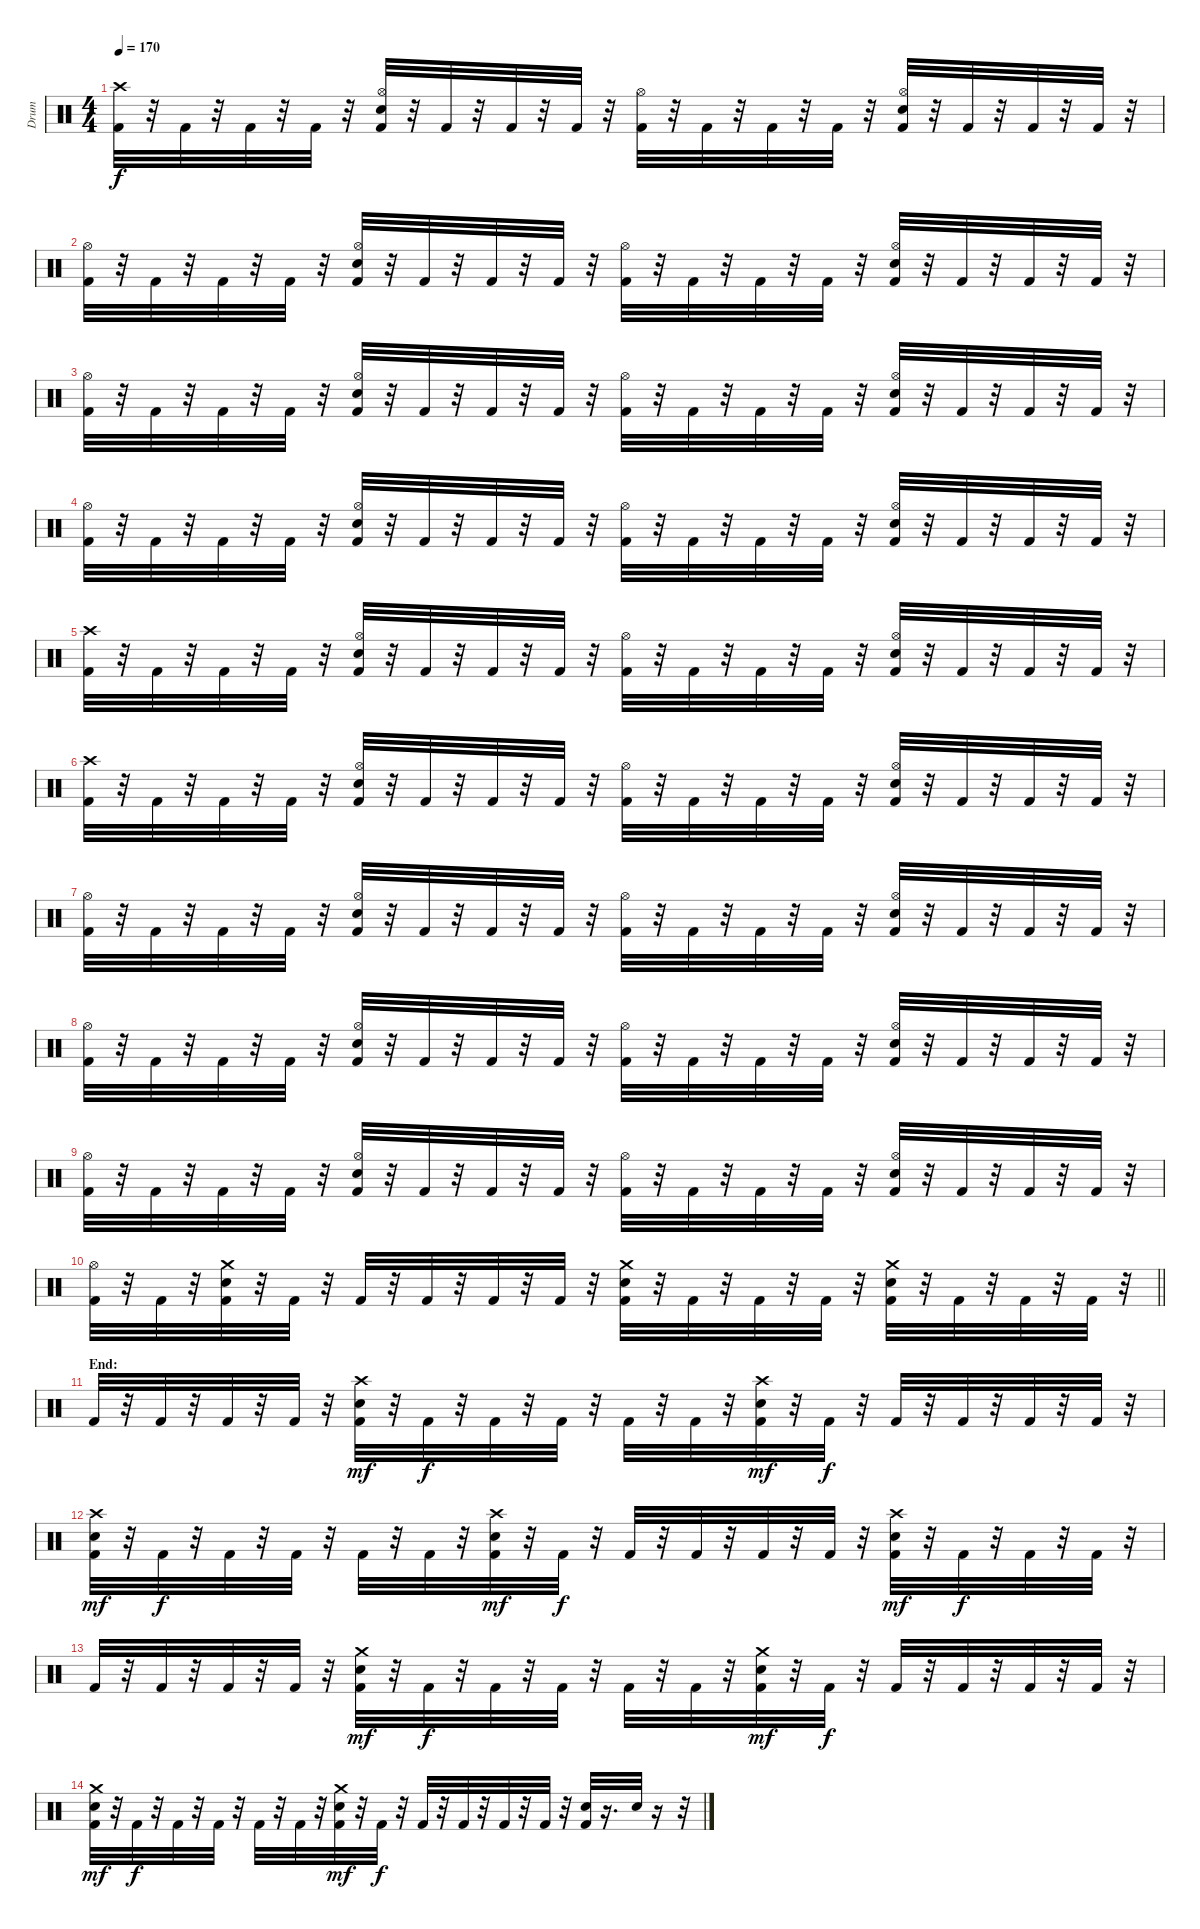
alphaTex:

\track ("Drum" "Drum") {instrument percussion}
\staff {score}
\articulation defaults
\ts (4 4)
\tempo 170
\clef neutral
\ks c
("Crash high (hit)" "Kick (hit) 2").32{dy f} r.32 "Kick (hit) 2".32 r.32 "Kick (hit) 2".32 r.32 "Kick (hit) 2".32 r.32 ("Kick (hit) 2" "Hi-Hat (open)" "Snare (hit) 2").32 r.32 "Kick (hit) 2".32 r.32 "Kick (hit) 2".32 r.32 "Kick (hit) 2".32 r.32 ("Kick (hit) 2" "Hi-Hat (open)").32 r.32 "Kick (hit) 2".32 r.32 "Kick (hit) 2".32 r.32 "Kick (hit) 2".32 r.32 ("Kick (hit) 2" "Hi-Hat (open)" "Snare (hit) 2").32 r.32 "Kick (hit) 2".32 r.32 "Kick (hit) 2".32 r.32 "Kick (hit) 2".32 r.32 |
("Hi-Hat (open)" "Kick (hit) 2").32 r.32 "Kick (hit) 2".32 r.32 "Kick (hit) 2".32 r.32 "Kick (hit) 2".32 r.32 ("Snare (hit) 2" "Hi-Hat (open)" "Kick (hit) 2").32 r.32 "Kick (hit) 2".32 r.32 "Kick (hit) 2".32 r.32 "Kick (hit) 2".32 r.32 ("Hi-Hat (open)" "Kick (hit) 2").32 r.32 "Kick (hit) 2".32 r.32 "Kick (hit) 2".32 r.32 "Kick (hit) 2".32 r.32 ("Snare (hit) 2" "Hi-Hat (open)" "Kick (hit) 2").32 r.32 "Kick (hit) 2".32 r.32 "Kick (hit) 2".32 r.32 "Kick (hit) 2".32 r.32 |
("Hi-Hat (open)" "Kick (hit) 2").32 r.32 "Kick (hit) 2".32 r.32 "Kick (hit) 2".32 r.32 "Kick (hit) 2".32 r.32 ("Snare (hit) 2" "Hi-Hat (open)" "Kick (hit) 2").32 r.32 "Kick (hit) 2".32 r.32 "Kick (hit) 2".32 r.32 "Kick (hit) 2".32 r.32 ("Hi-Hat (open)" "Kick (hit) 2").32 r.32 "Kick (hit) 2".32 r.32 "Kick (hit) 2".32 r.32 "Kick (hit) 2".32 r.32 ("Snare (hit) 2" "Hi-Hat (open)" "Kick (hit) 2").32 r.32 "Kick (hit) 2".32 r.32 "Kick (hit) 2".32 r.32 "Kick (hit) 2".32 r.32 |
("Hi-Hat (open)" "Kick (hit) 2").32 r.32 "Kick (hit) 2".32 r.32 "Kick (hit) 2".32 r.32 "Kick (hit) 2".32 r.32 ("Hi-Hat (open)" "Snare (hit) 2" "Kick (hit) 2").32 r.32 "Kick (hit) 2".32 r.32 "Kick (hit) 2".32 r.32 "Kick (hit) 2".32 r.32 ("Hi-Hat (open)" "Kick (hit) 2").32 r.32 "Kick (hit) 2".32 r.32 "Kick (hit) 2".32 r.32 "Kick (hit) 2".32 r.32 ("Hi-Hat (open)" "Snare (hit) 2" "Kick (hit) 2").32 r.32 "Kick (hit) 2".32 r.32 "Kick (hit) 2".32 r.32 "Kick (hit) 2".32 r.32 |
("Crash high (hit)" "Kick (hit) 2").32 r.32 "Kick (hit) 2".32 r.32 "Kick (hit) 2".32 r.32 "Kick (hit) 2".32 r.32 ("Snare (hit) 2" "Hi-Hat (open)" "Kick (hit) 2").32 r.32 "Kick (hit) 2".32 r.32 "Kick (hit) 2".32 r.32 "Kick (hit) 2".32 r.32 ("Hi-Hat (open)" "Kick (hit) 2").32 r.32 "Kick (hit) 2".32 r.32 "Kick (hit) 2".32 r.32 "Kick (hit) 2".32 r.32 ("Snare (hit) 2" "Hi-Hat (open)" "Kick (hit) 2").32 r.32 "Kick (hit) 2".32 r.32 "Kick (hit) 2".32 r.32 "Kick (hit) 2".32 r.32 |
("Crash high (hit)" "Kick (hit) 2").32 r.32 "Kick (hit) 2".32 r.32 "Kick (hit) 2".32 r.32 "Kick (hit) 2".32 r.32 ("Hi-Hat (open)" "Snare (hit) 2" "Kick (hit) 2").32 r.32 "Kick (hit) 2".32 r.32 "Kick (hit) 2".32 r.32 "Kick (hit) 2".32 r.32 ("Hi-Hat (open)" "Kick (hit) 2").32 r.32 "Kick (hit) 2".32 r.32 "Kick (hit) 2".32 r.32 "Kick (hit) 2".32 r.32 ("Hi-Hat (open)" "Snare (hit) 2" "Kick (hit) 2").32 r.32 "Kick (hit) 2".32 r.32 "Kick (hit) 2".32 r.32 "Kick (hit) 2".32 r.32 |
("Hi-Hat (open)" "Kick (hit) 2").32 r.32 "Kick (hit) 2".32 r.32 "Kick (hit) 2".32 r.32 "Kick (hit) 2".32 r.32 ("Hi-Hat (open)" "Snare (hit) 2" "Kick (hit) 2").32 r.32 "Kick (hit) 2".32 r.32 "Kick (hit) 2".32 r.32 "Kick (hit) 2".32 r.32 ("Hi-Hat (open)" "Kick (hit) 2").32 r.32 "Kick (hit) 2".32 r.32 "Kick (hit) 2".32 r.32 "Kick (hit) 2".32 r.32 ("Hi-Hat (open)" "Snare (hit) 2" "Kick (hit) 2").32 r.32 "Kick (hit) 2".32 r.32 "Kick (hit) 2".32 r.32 "Kick (hit) 2".32 r.32 |
("Hi-Hat (open)" "Kick (hit) 2").32 r.32 "Kick (hit) 2".32 r.32 "Kick (hit) 2".32 r.32 "Kick (hit) 2".32 r.32 ("Snare (hit) 2" "Hi-Hat (open)" "Kick (hit) 2").32 r.32 "Kick (hit) 2".32 r.32 "Kick (hit) 2".32 r.32 "Kick (hit) 2".32 r.32 ("Hi-Hat (open)" "Kick (hit) 2").32 r.32 "Kick (hit) 2".32 r.32 "Kick (hit) 2".32 r.32 "Kick (hit) 2".32 r.32 ("Snare (hit) 2" "Hi-Hat (open)" "Kick (hit) 2").32 r.32 "Kick (hit) 2".32 r.32 "Kick (hit) 2".32 r.32 "Kick (hit) 2".32 r.32 |
("Hi-Hat (open)" "Kick (hit) 2").32 r.32 "Kick (hit) 2".32 r.32 "Kick (hit) 2".32 r.32 "Kick (hit) 2".32 r.32 ("Kick (hit) 2" "Snare (hit) 2" "Hi-Hat (open)").32 r.32 "Kick (hit) 2".32 r.32 "Kick (hit) 2".32 r.32 "Kick (hit) 2".32 r.32 ("Kick (hit) 2" "Hi-Hat (open)").32 r.32 "Kick (hit) 2".32 r.32 "Kick (hit) 2".32 r.32 "Kick (hit) 2".32 r.32 ("Kick (hit) 2" "Snare (hit) 2" "Hi-Hat (open)").32 r.32 "Kick (hit) 2".32 r.32 "Kick (hit) 2".32 r.32 "Kick (hit) 2".32 r.32 |
\barLineRight lightlight
("Kick (hit) 2" "Hi-Hat (open)").32 r.32 "Kick (hit) 2".32 r.32 ("Crash medium (hit)" "Snare (hit) 2" "Kick (hit) 2").32 r.32 "Kick (hit) 2".32 r.32 "Kick (hit) 2".32 r.32 "Kick (hit) 2".32 r.32 "Kick (hit) 2".32 r.32 "Kick (hit) 2".32 r.32 ("Crash medium (hit)" "Snare (hit) 2" "Kick (hit) 2").32 r.32 "Kick (hit) 2".32 r.32 "Kick (hit) 2".32 r.32 "Kick (hit) 2".32 r.32 ("Crash medium (hit)" "Snare (hit) 2" "Kick (hit) 2").32 r.32 "Kick (hit) 2".32 r.32 "Kick (hit) 2".32 r.32 "Kick (hit) 2".32 r.32 |
\section ("" "End:")
"Kick (hit) 2".32 r.32 "Kick (hit) 2".32 r.32 "Kick (hit) 2".32 r.32 "Kick (hit) 2".32 r.32 ("Crash high (hit)" "Snare (hit) 2" "Kick (hit) 2").32{dy mf} r.32 "Kick (hit) 2".32{dy f} r.32 "Kick (hit) 2".32 r.32 "Kick (hit) 2".32 r.32 "Kick (hit) 2".32 r.32 "Kick (hit) 2".32 r.32 ("Crash high (hit)" "Snare (hit) 2" "Kick (hit) 2").32{dy mf} r.32 "Kick (hit) 2".32{dy f} r.32 "Kick (hit) 2".32 r.32 "Kick (hit) 2".32 r.32 "Kick (hit) 2".32 r.32 "Kick (hit) 2".32 r.32 |
("Crash high (hit)" "Snare (hit) 2" "Kick (hit) 2").32{dy mf} r.32 "Kick (hit) 2".32{dy f} r.32 "Kick (hit) 2".32 r.32 "Kick (hit) 2".32 r.32 "Kick (hit) 2".32 r.32 "Kick (hit) 2".32 r.32 ("Crash high (hit)" "Snare (hit) 2" "Kick (hit) 2").32{dy mf} r.32 "Kick (hit) 2".32{dy f} r.32 "Kick (hit) 2".32 r.32 "Kick (hit) 2".32 r.32 "Kick (hit) 2".32 r.32 "Kick (hit) 2".32 r.32 ("Crash high (hit)" "Snare (hit) 2" "Kick (hit) 2").32{dy mf} r.32 "Kick (hit) 2".32{dy f} r.32 "Kick (hit) 2".32 r.32 "Kick (hit) 2".32 r.32 |
"Kick (hit) 2".32 r.32 "Kick (hit) 2".32 r.32 "Kick (hit) 2".32 r.32 "Kick (hit) 2".32 r.32 ("Crash medium (hit)" "Kick (hit) 2" "Snare (hit) 2").32{dy mf} r.32 "Kick (hit) 2".32{dy f} r.32 "Kick (hit) 2".32 r.32 "Kick (hit) 2".32 r.32 "Kick (hit) 2".32 r.32 "Kick (hit) 2".32 r.32 ("Crash medium (hit)" "Kick (hit) 2" "Snare (hit) 2").32{dy mf} r.32 "Kick (hit) 2".32{dy f} r.32 "Kick (hit) 2".32 r.32 "Kick (hit) 2".32 r.32 "Kick (hit) 2".32 r.32 "Kick (hit) 2".32 r.32 |
("Crash medium (hit)" "Kick (hit) 2" "Snare (hit) 2").32{dy mf} r.32 "Kick (hit) 2".32{dy f} r.32 "Kick (hit) 2".32 r.32 "Kick (hit) 2".32 r.32 "Kick (hit) 2".32 r.32 "Kick (hit) 2".32 r.32 ("Crash medium (hit)" "Kick (hit) 2" "Snare (hit) 2").32{dy mf} r.32 "Kick (hit) 2".32{dy f} r.32 "Kick (hit) 2".32 r.32 "Kick (hit) 2".32 r.32 "Kick (hit) 2".32 r.32 "Kick (hit) 2".32 r.32 ("Kick (hit) 2" "Snare (hit) 2").32 r.16{d} "Snare (hit) 2".32 r.16 r.32
